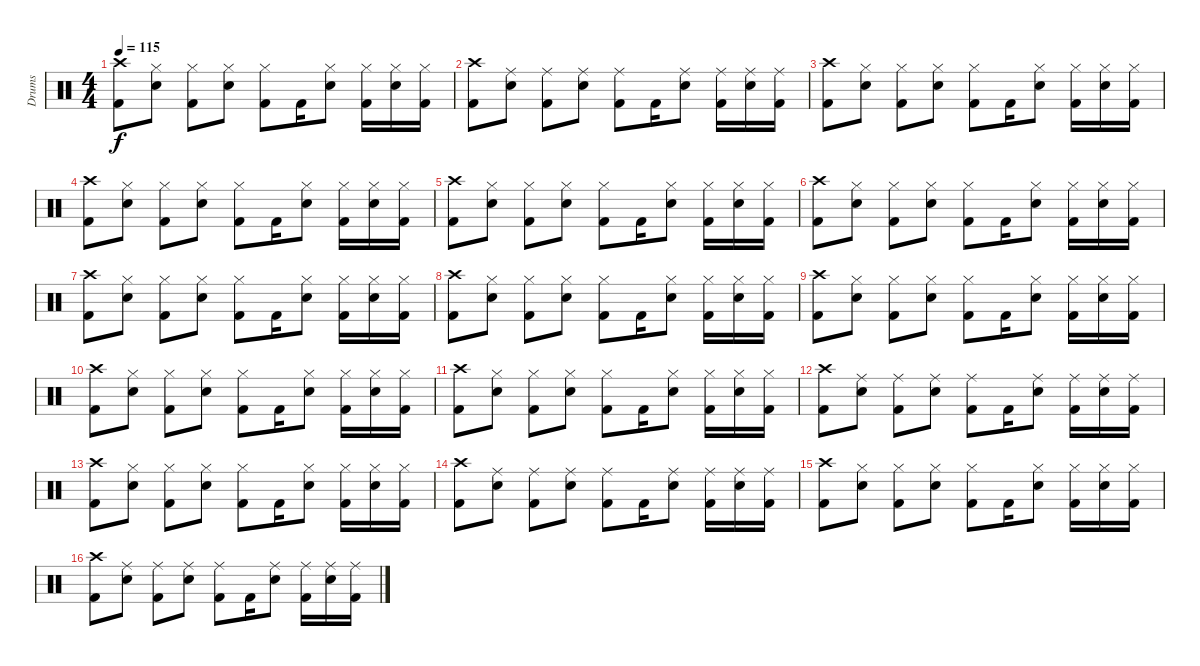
\track ("Drums" "Drums") {instrument percussion}
\staff {score}
\articulation defaults
\ts (4 4)
\tempo 115
\clef neutral
\ks c
("Crash high (hit)" "Kick (hit) 2").8{dy f} ("Hi-Hat (closed)" "Electric Snare (hit)").8 ("Hi-Hat (closed)" "Kick (hit) 2").8 ("Hi-Hat (closed)" "Electric Snare (hit)").8 ("Hi-Hat (closed)" "Kick (hit) 2").8 "Kick (hit) 2".16 ("Hi-Hat (closed)" "Electric Snare (hit)").8 ("Hi-Hat (closed)" "Kick (hit) 2").16 ("Hi-Hat (closed)" "Electric Snare (hit)").16 ("Hi-Hat (closed)" "Kick (hit) 2").16 |
("Crash high (hit)" "Kick (hit) 2").8 ("Ride (middle)" "Electric Snare (hit)").8 ("Ride (middle)" "Kick (hit) 2").8 ("Ride (middle)" "Electric Snare (hit)").8 ("Ride (middle)" "Kick (hit) 2").8 "Kick (hit) 2".16 ("Ride (middle)" "Electric Snare (hit)").8 ("Ride (middle)" "Kick (hit) 2").16 ("Ride (middle)" "Electric Snare (hit)").16 ("Ride (middle)" "Kick (hit) 2").16 |
("Crash high (hit)" "Kick (hit) 2").8 ("Hi-Hat (closed)" "Electric Snare (hit)").8 ("Hi-Hat (closed)" "Kick (hit) 2").8 ("Hi-Hat (closed)" "Electric Snare (hit)").8 ("Hi-Hat (closed)" "Kick (hit) 2").8 "Kick (hit) 2".16 ("Hi-Hat (closed)" "Electric Snare (hit)").8 ("Hi-Hat (closed)" "Kick (hit) 2").16 ("Hi-Hat (closed)" "Electric Snare (hit)").16 ("Hi-Hat (closed)" "Kick (hit) 2").16 |
("Crash high (hit)" "Kick (hit) 2").8 ("Hi-Hat (closed)" "Electric Snare (hit)").8 ("Hi-Hat (closed)" "Kick (hit) 2").8 ("Hi-Hat (closed)" "Electric Snare (hit)").8 ("Hi-Hat (closed)" "Kick (hit) 2").8 "Kick (hit) 2".16 ("Hi-Hat (closed)" "Electric Snare (hit)").8 ("Hi-Hat (closed)" "Kick (hit) 2").16 ("Hi-Hat (closed)" "Electric Snare (hit)").16 ("Hi-Hat (closed)" "Kick (hit) 2").16 |
("Crash high (hit)" "Kick (hit) 2").8 ("Hi-Hat (closed)" "Electric Snare (hit)").8 ("Hi-Hat (closed)" "Kick (hit) 2").8 ("Hi-Hat (closed)" "Electric Snare (hit)").8 ("Hi-Hat (closed)" "Kick (hit) 2").8 "Kick (hit) 2".16 ("Hi-Hat (closed)" "Electric Snare (hit)").8 ("Hi-Hat (closed)" "Kick (hit) 2").16 ("Hi-Hat (closed)" "Electric Snare (hit)").16 ("Hi-Hat (closed)" "Kick (hit) 2").16 |
("Crash high (hit)" "Kick (hit) 2").8 ("Hi-Hat (closed)" "Electric Snare (hit)").8 ("Hi-Hat (closed)" "Kick (hit) 2").8 ("Hi-Hat (closed)" "Electric Snare (hit)").8 ("Hi-Hat (closed)" "Kick (hit) 2").8 "Kick (hit) 2".16 ("Hi-Hat (closed)" "Electric Snare (hit)").8 ("Hi-Hat (closed)" "Kick (hit) 2").16 ("Hi-Hat (closed)" "Electric Snare (hit)").16 ("Hi-Hat (closed)" "Kick (hit) 2").16 |
("Crash high (hit)" "Kick (hit) 2").8 ("Hi-Hat (closed)" "Electric Snare (hit)").8 ("Hi-Hat (closed)" "Kick (hit) 2").8 ("Hi-Hat (closed)" "Electric Snare (hit)").8 ("Hi-Hat (closed)" "Kick (hit) 2").8 "Kick (hit) 2".16 ("Hi-Hat (closed)" "Electric Snare (hit)").8 ("Hi-Hat (closed)" "Kick (hit) 2").16 ("Hi-Hat (closed)" "Electric Snare (hit)").16 ("Hi-Hat (closed)" "Kick (hit) 2").16 |
("Crash high (hit)" "Kick (hit) 2").8 ("Hi-Hat (closed)" "Electric Snare (hit)").8 ("Hi-Hat (closed)" "Kick (hit) 2").8 ("Hi-Hat (closed)" "Electric Snare (hit)").8 ("Hi-Hat (closed)" "Kick (hit) 2").8 "Kick (hit) 2".16 ("Hi-Hat (closed)" "Electric Snare (hit)").8 ("Hi-Hat (closed)" "Kick (hit) 2").16 ("Hi-Hat (closed)" "Electric Snare (hit)").16 ("Hi-Hat (closed)" "Kick (hit) 2").16 |
("Crash high (hit)" "Kick (hit) 2").8 ("Hi-Hat (closed)" "Electric Snare (hit)").8 ("Hi-Hat (closed)" "Kick (hit) 2").8 ("Hi-Hat (closed)" "Electric Snare (hit)").8 ("Hi-Hat (closed)" "Kick (hit) 2").8 "Kick (hit) 2".16 ("Hi-Hat (closed)" "Electric Snare (hit)").8 ("Hi-Hat (closed)" "Kick (hit) 2").16 ("Hi-Hat (closed)" "Electric Snare (hit)").16 ("Hi-Hat (closed)" "Kick (hit) 2").16 |
("Crash high (hit)" "Kick (hit) 2").8 ("Hi-Hat (closed)" "Electric Snare (hit)").8 ("Hi-Hat (closed)" "Kick (hit) 2").8 ("Hi-Hat (closed)" "Electric Snare (hit)").8 ("Hi-Hat (closed)" "Kick (hit) 2").8 "Kick (hit) 2".16 ("Hi-Hat (closed)" "Electric Snare (hit)").8 ("Hi-Hat (closed)" "Kick (hit) 2").16 ("Hi-Hat (closed)" "Electric Snare (hit)").16 ("Hi-Hat (closed)" "Kick (hit) 2").16 |
("Crash high (hit)" "Kick (hit) 2").8 ("Hi-Hat (closed)" "Electric Snare (hit)").8 ("Hi-Hat (closed)" "Kick (hit) 2").8 ("Hi-Hat (closed)" "Electric Snare (hit)").8 ("Hi-Hat (closed)" "Kick (hit) 2").8 "Kick (hit) 2".16 ("Hi-Hat (closed)" "Electric Snare (hit)").8 ("Hi-Hat (closed)" "Kick (hit) 2").16 ("Hi-Hat (closed)" "Electric Snare (hit)").16 ("Hi-Hat (closed)" "Kick (hit) 2").16 |
("Crash high (hit)" "Kick (hit) 2").8 ("Ride (middle)" "Electric Snare (hit)").8 ("Ride (middle)" "Kick (hit) 2").8 ("Ride (middle)" "Electric Snare (hit)").8 ("Ride (middle)" "Kick (hit) 2").8 "Kick (hit) 2".16 ("Ride (middle)" "Electric Snare (hit)").8 ("Ride (middle)" "Kick (hit) 2").16 ("Ride (middle)" "Electric Snare (hit)").16 ("Ride (middle)" "Kick (hit) 2").16 |
("Crash high (hit)" "Kick (hit) 2").8 ("Hi-Hat (closed)" "Electric Snare (hit)").8 ("Hi-Hat (closed)" "Kick (hit) 2").8 ("Hi-Hat (closed)" "Electric Snare (hit)").8 ("Hi-Hat (closed)" "Kick (hit) 2").8 "Kick (hit) 2".16 ("Hi-Hat (closed)" "Electric Snare (hit)").8 ("Hi-Hat (closed)" "Kick (hit) 2").16 ("Hi-Hat (closed)" "Electric Snare (hit)").16 ("Hi-Hat (closed)" "Kick (hit) 2").16 |
("Crash high (hit)" "Kick (hit) 2").8 ("Ride (middle)" "Electric Snare (hit)").8 ("Ride (middle)" "Kick (hit) 2").8 ("Ride (middle)" "Electric Snare (hit)").8 ("Ride (middle)" "Kick (hit) 2").8 "Kick (hit) 2".16 ("Ride (middle)" "Electric Snare (hit)").8 ("Ride (middle)" "Kick (hit) 2").16 ("Ride (middle)" "Electric Snare (hit)").16 ("Ride (middle)" "Kick (hit) 2").16 |
("Crash high (hit)" "Kick (hit) 2").8 ("Hi-Hat (closed)" "Electric Snare (hit)").8 ("Hi-Hat (closed)" "Kick (hit) 2").8 ("Hi-Hat (closed)" "Electric Snare (hit)").8 ("Hi-Hat (closed)" "Kick (hit) 2").8 "Kick (hit) 2".16 ("Hi-Hat (closed)" "Electric Snare (hit)").8 ("Hi-Hat (closed)" "Kick (hit) 2").16 ("Hi-Hat (closed)" "Electric Snare (hit)").16 ("Hi-Hat (closed)" "Kick (hit) 2").16 |
("Crash high (hit)" "Kick (hit) 2").8 ("Ride (middle)" "Electric Snare (hit)").8 ("Ride (middle)" "Kick (hit) 2").8 ("Ride (middle)" "Electric Snare (hit)").8 ("Ride (middle)" "Kick (hit) 2").8 "Kick (hit) 2".16 ("Ride (middle)" "Electric Snare (hit)").8 ("Ride (middle)" "Kick (hit) 2").16 ("Ride (middle)" "Electric Snare (hit)").16 ("Ride (middle)" "Kick (hit) 2").16
